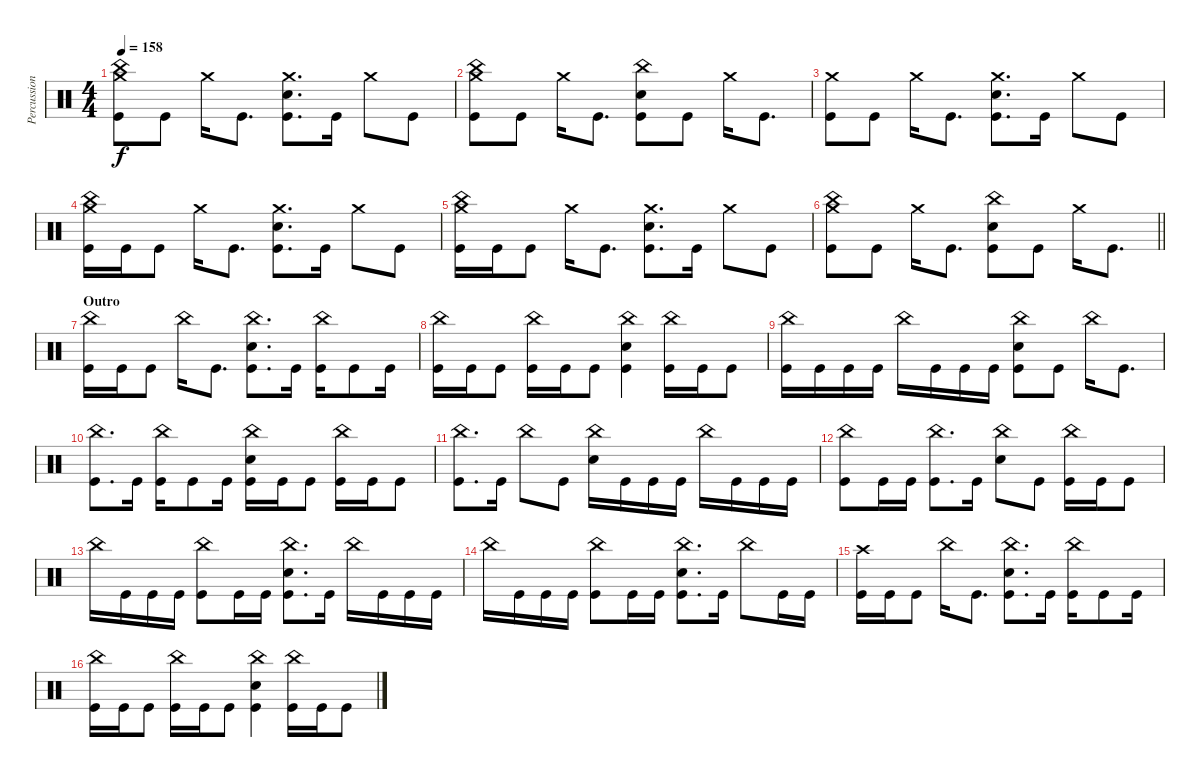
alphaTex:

\track ("Percussion" "Percussion") {instrument percussion}
\staff {score}
\articulation defaults
\ts (4 4)
\tempo 158
\clef neutral
\ks c
("Crash medium (hit)" "China (hit)" "Kick (hit)").8{dy f} "Kick (hit)".8 "Crash medium (hit)".16 "Kick (hit)".8{d} ("Crash medium (hit)" "Electric Snare (hit)" "Kick (hit)").8{d} "Kick (hit)".16 "Crash medium (hit)".8 "Kick (hit)".8 |
("Crash medium (hit)" "China (hit)" "Kick (hit)").8 "Kick (hit)".8 "Crash medium (hit)".16 "Kick (hit)".8{d} ("China (hit)" "Electric Snare (hit)" "Kick (hit)").8 "Kick (hit)".8 "Crash medium (hit)".16 "Kick (hit)".8{d} |
("Crash medium (hit)" "Kick (hit)").8 "Kick (hit)".8 "Crash medium (hit)".16 "Kick (hit)".8{d} ("Crash medium (hit)" "Electric Snare (hit)" "Kick (hit)").8{d} "Kick (hit)".16 "Crash medium (hit)".8 "Kick (hit)".8 |
("Crash medium (hit)" "China (hit)" "Kick (hit)").16 "Kick (hit)".16 "Kick (hit)".8 "Crash medium (hit)".16 "Kick (hit)".8{d} ("Crash medium (hit)" "Electric Snare (hit)" "Kick (hit)").8{d} "Kick (hit)".16 "Crash medium (hit)".8 "Kick (hit)".8 |
("Crash medium (hit)" "China (hit)" "Kick (hit)").16 "Kick (hit)".16 "Kick (hit)".8 "Crash medium (hit)".16 "Kick (hit)".8{d} ("Crash medium (hit)" "Electric Snare (hit)" "Kick (hit)").8{d} "Kick (hit)".16 "Crash medium (hit)".8 "Kick (hit)".8 |
\barLineRight lightlight
("Crash medium (hit)" "China (hit)" "Kick (hit)").8 "Kick (hit)".8 "Crash medium (hit)".16 "Kick (hit)".8{d} ("China (hit)" "Electric Snare (hit)" "Kick (hit)").8 "Kick (hit)".8 "Crash medium (hit)".16 "Kick (hit)".8{d} |
\section ("" "Outro")
("China (hit)" "Kick (hit)").16 "Kick (hit)".16 "Kick (hit)".8 "China (hit)".16 "Kick (hit)".8{d} ("China (hit)" "Electric Snare (hit)" "Kick (hit)").8{d} "Kick (hit)".16 ("China (hit)" "Kick (hit)").16 "Kick (hit)".8 "Kick (hit)".16 |
("China (hit)" "Kick (hit)").16 "Kick (hit)".16 "Kick (hit)".8 ("China (hit)" "Kick (hit)").16 "Kick (hit)".16 "Kick (hit)".8 ("China (hit)" "Electric Snare (hit)" "Kick (hit)").4 ("China (hit)" "Kick (hit)").16 "Kick (hit)".16 "Kick (hit)".8 |
("China (hit)" "Kick (hit)").16 "Kick (hit)".16 "Kick (hit)".16 "Kick (hit)".16 "China (hit)".16 "Kick (hit)".16 "Kick (hit)".16 "Kick (hit)".16 ("China (hit)" "Electric Snare (hit)" "Kick (hit)").8 "Kick (hit)".8 "China (hit)".16 "Kick (hit)".8{d} |
("China (hit)" "Kick (hit)").8{d} "Kick (hit)".16 ("China (hit)" "Kick (hit)").16 "Kick (hit)".8 "Kick (hit)".16 ("China (hit)" "Electric Snare (hit)" "Kick (hit)").16 "Kick (hit)".16 "Kick (hit)".8 ("China (hit)" "Kick (hit)").16 "Kick (hit)".16 "Kick (hit)".8 |
("China (hit)" "Kick (hit)").8{d} "Kick (hit)".16 "China (hit)".8 "Kick (hit)".8 ("China (hit)" "Electric Snare (hit)").16 "Kick (hit)".16 "Kick (hit)".16 "Kick (hit)".16 "China (hit)".16 "Kick (hit)".16 "Kick (hit)".16 "Kick (hit)".16 |
("China (hit)" "Kick (hit)").8 "Kick (hit)".16 "Kick (hit)".16 ("China (hit)" "Kick (hit)").8{d} "Kick (hit)".16 ("China (hit)" "Electric Snare (hit)").8 "Kick (hit)".8 ("China (hit)" "Kick (hit)").16 "Kick (hit)".16 "Kick (hit)".8 |
"China (hit)".16 "Kick (hit)".16 "Kick (hit)".16 "Kick (hit)".16 ("China (hit)" "Kick (hit)").8 "Kick (hit)".16 "Kick (hit)".16 ("China (hit)" "Electric Snare (hit)" "Kick (hit)").8{d} "Kick (hit)".16 "China (hit)".16 "Kick (hit)".16 "Kick (hit)".16 "Kick (hit)".16 |
"China (hit)".16 "Kick (hit)".16 "Kick (hit)".16 "Kick (hit)".16 ("China (hit)" "Kick (hit)").8 "Kick (hit)".16 "Kick (hit)".16 ("China (hit)" "Electric Snare (hit)" "Kick (hit)").8{d} "Kick (hit)".16 "China (hit)".8 "Kick (hit)".16 "Kick (hit)".16 |
("Crash high (hit)" "Kick (hit)").16 "Kick (hit)".16 "Kick (hit)".8 "China (hit)".16 "Kick (hit)".8{d} ("China (hit)" "Electric Snare (hit)" "Kick (hit)").8{d} "Kick (hit)".16 ("China (hit)" "Kick (hit)").16 "Kick (hit)".8 "Kick (hit)".16 |
("China (hit)" "Kick (hit)").16 "Kick (hit)".16 "Kick (hit)".8 ("China (hit)" "Kick (hit)").16 "Kick (hit)".16 "Kick (hit)".8 ("China (hit)" "Electric Snare (hit)" "Kick (hit)").4 ("China (hit)" "Kick (hit)").16 "Kick (hit)".16 "Kick (hit)".8
